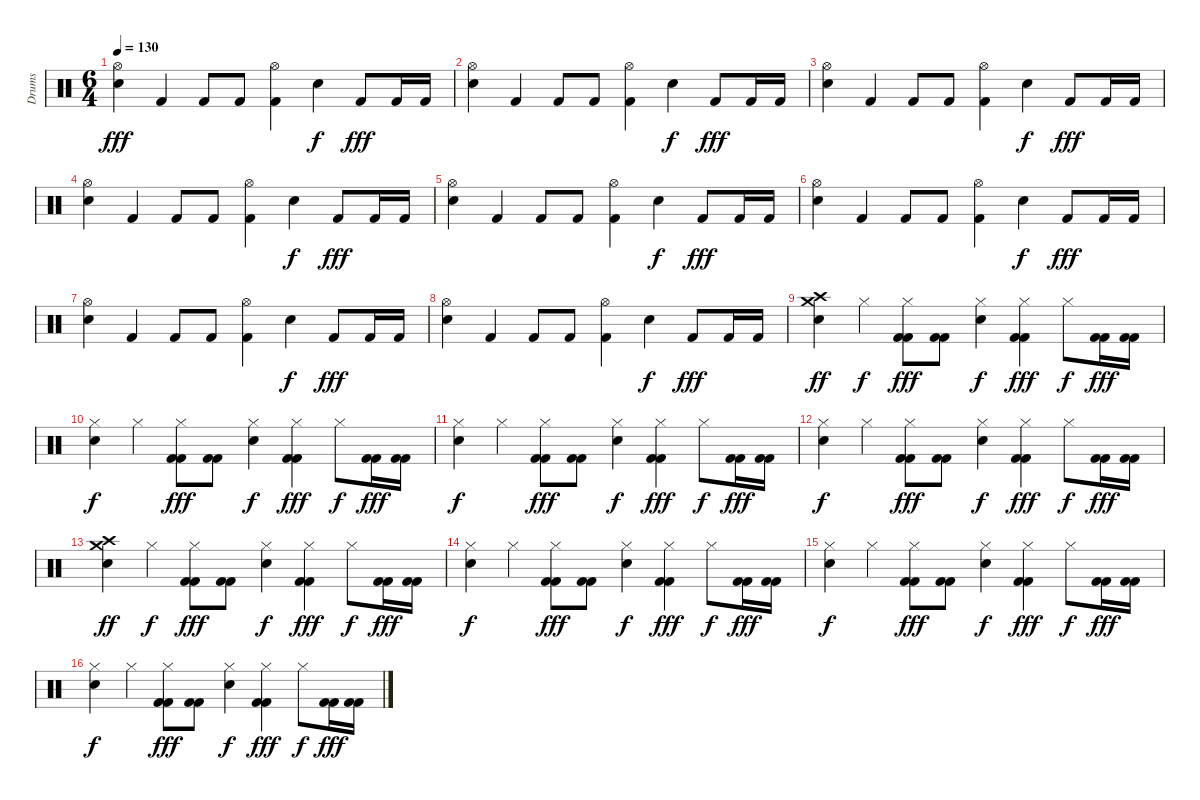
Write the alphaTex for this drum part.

\track ("Drums" "Drums") {instrument percussion}
\staff {score}
\articulation defaults
\ts (6 4)
\tempo 130
\clef neutral
\ks c
("Hi-Hat (open)" "Snare (hit) 2").4{dy fff} "Kick (hit) 2".4 "Kick (hit) 2".8 "Kick (hit) 2".8 ("Hi-Hat (open)" "Kick (hit) 2").4 "Snare (hit) 2".4{dy f} "Kick (hit) 2".8{dy fff} "Kick (hit) 2".16 "Kick (hit) 2".16 |
("Hi-Hat (open)" "Snare (hit) 2").4 "Kick (hit) 2".4 "Kick (hit) 2".8 "Kick (hit) 2".8 ("Hi-Hat (open)" "Kick (hit) 2").4 "Snare (hit) 2".4{dy f} "Kick (hit) 2".8{dy fff} "Kick (hit) 2".16 "Kick (hit) 2".16 |
("Hi-Hat (open)" "Snare (hit) 2").4 "Kick (hit) 2".4 "Kick (hit) 2".8 "Kick (hit) 2".8 ("Hi-Hat (open)" "Kick (hit) 2").4 "Snare (hit) 2".4{dy f} "Kick (hit) 2".8{dy fff} "Kick (hit) 2".16 "Kick (hit) 2".16 |
("Hi-Hat (open)" "Snare (hit) 2").4 "Kick (hit) 2".4 "Kick (hit) 2".8 "Kick (hit) 2".8 ("Hi-Hat (open)" "Kick (hit) 2").4 "Snare (hit) 2".4{dy f} "Kick (hit) 2".8{dy fff} "Kick (hit) 2".16 "Kick (hit) 2".16 |
("Hi-Hat (open)" "Snare (hit) 2").4 "Kick (hit) 2".4 "Kick (hit) 2".8 "Kick (hit) 2".8 ("Hi-Hat (open)" "Kick (hit) 2").4 "Snare (hit) 2".4{dy f} "Kick (hit) 2".8{dy fff} "Kick (hit) 2".16 "Kick (hit) 2".16 |
("Hi-Hat (open)" "Snare (hit) 2").4 "Kick (hit) 2".4 "Kick (hit) 2".8 "Kick (hit) 2".8 ("Hi-Hat (open)" "Kick (hit) 2").4 "Snare (hit) 2".4{dy f} "Kick (hit) 2".8{dy fff} "Kick (hit) 2".16 "Kick (hit) 2".16 |
("Hi-Hat (open)" "Snare (hit) 2").4 "Kick (hit) 2".4 "Kick (hit) 2".8 "Kick (hit) 2".8 ("Hi-Hat (open)" "Kick (hit) 2").4 "Snare (hit) 2".4{dy f} "Kick (hit) 2".8{dy fff} "Kick (hit) 2".16 "Kick (hit) 2".16 |
("Hi-Hat (open)" "Snare (hit) 2").4 "Kick (hit) 2".4 "Kick (hit) 2".8 "Kick (hit) 2".8 ("Hi-Hat (open)" "Kick (hit) 2").4 "Snare (hit) 2".4{dy f} "Kick (hit) 2".8{dy fff} "Kick (hit) 2".16 "Kick (hit) 2".16 |
("Crash high (hit)" "Crash medium (hit)" "Electric Snare (hit)").4{dy ff} "Hi-Hat (closed)".4{dy f} ("Hi-Hat (closed)" "Kick (hit) 2" "Kick (hit) 2").8{dy fff} ("Kick (hit) 2" "Kick (hit) 2").8 ("Hi-Hat (closed)" "Electric Snare (hit)").4{dy f} ("Hi-Hat (closed)" "Kick (hit) 2" "Kick (hit) 2").4{dy fff} "Hi-Hat (closed)".8{dy f} ("Kick (hit) 2" "Kick (hit) 2").16{dy fff} ("Kick (hit) 2" "Kick (hit) 2").16 |
("Hi-Hat (closed)" "Electric Snare (hit)").4{dy f} "Hi-Hat (closed)".4 ("Hi-Hat (closed)" "Kick (hit) 2" "Kick (hit) 2").8{dy fff} ("Kick (hit) 2" "Kick (hit) 2").8 ("Hi-Hat (closed)" "Electric Snare (hit)").4{dy f} ("Hi-Hat (closed)" "Kick (hit) 2" "Kick (hit) 2").4{dy fff} "Hi-Hat (closed)".8{dy f} ("Kick (hit) 2" "Kick (hit) 2").16{dy fff} ("Kick (hit) 2" "Kick (hit) 2").16 |
("Hi-Hat (closed)" "Electric Snare (hit)").4{dy f} "Hi-Hat (closed)".4 ("Hi-Hat (closed)" "Kick (hit) 2" "Kick (hit) 2").8{dy fff} ("Kick (hit) 2" "Kick (hit) 2").8 ("Hi-Hat (closed)" "Electric Snare (hit)").4{dy f} ("Hi-Hat (closed)" "Kick (hit) 2" "Kick (hit) 2").4{dy fff} "Hi-Hat (closed)".8{dy f} ("Kick (hit) 2" "Kick (hit) 2").16{dy fff} ("Kick (hit) 2" "Kick (hit) 2").16 |
("Hi-Hat (closed)" "Electric Snare (hit)").4{dy f} "Hi-Hat (closed)".4 ("Hi-Hat (closed)" "Kick (hit) 2" "Kick (hit) 2").8{dy fff} ("Kick (hit) 2" "Kick (hit) 2").8 ("Hi-Hat (closed)" "Electric Snare (hit)").4{dy f} ("Hi-Hat (closed)" "Kick (hit) 2" "Kick (hit) 2").4{dy fff} "Hi-Hat (closed)".8{dy f} ("Kick (hit) 2" "Kick (hit) 2").16{dy fff} ("Kick (hit) 2" "Kick (hit) 2").16 |
("Crash high (hit)" "Crash medium (hit)" "Electric Snare (hit)").4{dy ff} "Hi-Hat (closed)".4{dy f} ("Hi-Hat (closed)" "Kick (hit) 2" "Kick (hit) 2").8{dy fff} ("Kick (hit) 2" "Kick (hit) 2").8 ("Hi-Hat (closed)" "Electric Snare (hit)").4{dy f} ("Hi-Hat (closed)" "Kick (hit) 2" "Kick (hit) 2").4{dy fff} "Hi-Hat (closed)".8{dy f} ("Kick (hit) 2" "Kick (hit) 2").16{dy fff} ("Kick (hit) 2" "Kick (hit) 2").16 |
("Hi-Hat (closed)" "Electric Snare (hit)").4{dy f} "Hi-Hat (closed)".4 ("Hi-Hat (closed)" "Kick (hit) 2" "Kick (hit) 2").8{dy fff} ("Kick (hit) 2" "Kick (hit) 2").8 ("Hi-Hat (closed)" "Electric Snare (hit)").4{dy f} ("Hi-Hat (closed)" "Kick (hit) 2" "Kick (hit) 2").4{dy fff} "Hi-Hat (closed)".8{dy f} ("Kick (hit) 2" "Kick (hit) 2").16{dy fff} ("Kick (hit) 2" "Kick (hit) 2").16 |
("Hi-Hat (closed)" "Electric Snare (hit)").4{dy f} "Hi-Hat (closed)".4 ("Hi-Hat (closed)" "Kick (hit) 2" "Kick (hit) 2").8{dy fff} ("Kick (hit) 2" "Kick (hit) 2").8 ("Hi-Hat (closed)" "Electric Snare (hit)").4{dy f} ("Hi-Hat (closed)" "Kick (hit) 2" "Kick (hit) 2").4{dy fff} "Hi-Hat (closed)".8{dy f} ("Kick (hit) 2" "Kick (hit) 2").16{dy fff} ("Kick (hit) 2" "Kick (hit) 2").16 |
("Hi-Hat (closed)" "Electric Snare (hit)").4{dy f} "Hi-Hat (closed)".4 ("Hi-Hat (closed)" "Kick (hit) 2" "Kick (hit) 2").8{dy fff} ("Kick (hit) 2" "Kick (hit) 2").8 ("Hi-Hat (closed)" "Electric Snare (hit)").4{dy f} ("Hi-Hat (closed)" "Kick (hit) 2" "Kick (hit) 2").4{dy fff} "Hi-Hat (closed)".8{dy f} ("Kick (hit) 2" "Kick (hit) 2").16{dy fff} ("Kick (hit) 2" "Kick (hit) 2").16
